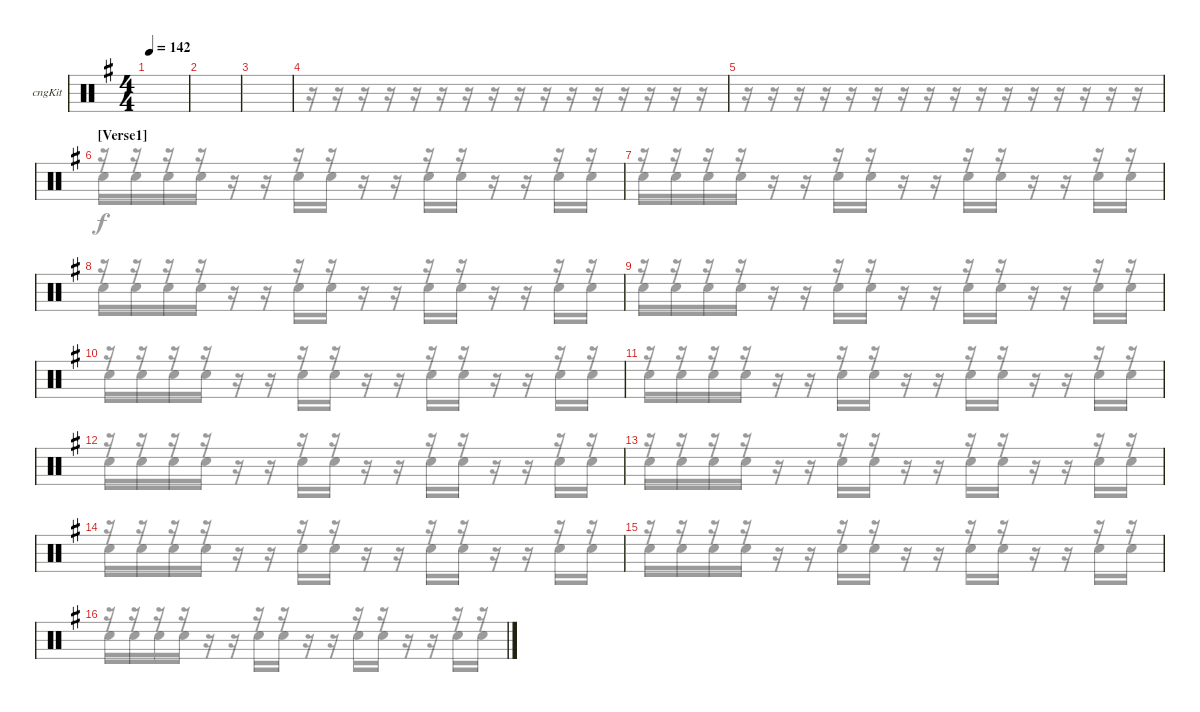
\bracketExtendMode groupsimilarinstruments
\firstSystemTrackNameOrientation horizontal
\otherSystemsTrackNameOrientation horizontal
\track ("Congas" "cngKit") {instrument percussion}
\staff {score}
\articulation defaults
\voice
\ts (4 4)
\tempo 142
\clef neutral
\ks eminor
|
|
|
|
|
\section ("" "[Verse1] ")
|
|
|
|
|
|
|
|
|
|
\voice
\clef neutral
\ks eminor
|
|
|
r.16 r.16 r.16 r.16 r.16 r.16 r.16 r.16 r.16 r.16 r.16 r.16 r.16 r.16 r.16 r.16 |
r.16 r.16 r.16 r.16 r.16 r.16 r.16 r.16 r.16 r.16 r.16 r.16 r.16 r.16 r.16 r.16 |
r.16 r.16 r.16 r.16 r.16 r.16 r.16 r.16 r.16 r.16 r.16 r.16 r.16 r.16 r.16 r.16 |
r.16 r.16 r.16 r.16 r.16 r.16 r.16 r.16 r.16 r.16 r.16 r.16 r.16 r.16 r.16 r.16 |
r.16 r.16 r.16 r.16 r.16 r.16 r.16 r.16 r.16 r.16 r.16 r.16 r.16 r.16 r.16 r.16 |
r.16 r.16 r.16 r.16 r.16 r.16 r.16 r.16 r.16 r.16 r.16 r.16 r.16 r.16 r.16 r.16 |
r.16 r.16 r.16 r.16 r.16 r.16 r.16 r.16 r.16 r.16 r.16 r.16 r.16 r.16 r.16 r.16 |
r.16 r.16 r.16 r.16 r.16 r.16 r.16 r.16 r.16 r.16 r.16 r.16 r.16 r.16 r.16 r.16 |
r.16 r.16 r.16 r.16 r.16 r.16 r.16 r.16 r.16 r.16 r.16 r.16 r.16 r.16 r.16 r.16 |
r.16 r.16 r.16 r.16 r.16 r.16 r.16 r.16 r.16 r.16 r.16 r.16 r.16 r.16 r.16 r.16 |
r.16 r.16 r.16 r.16 r.16 r.16 r.16 r.16 r.16 r.16 r.16 r.16 r.16 r.16 r.16 r.16 |
r.16 r.16 r.16 r.16 r.16 r.16 r.16 r.16 r.16 r.16 r.16 r.16 r.16 r.16 r.16 r.16 |
r.16 r.16 r.16 r.16 r.16 r.16 r.16 r.16 r.16 r.16 r.16 r.16 r.16 r.16 r.16 r.16
\voice
\clef neutral
\ottava regular
\simile none
\ks eminor
|
|
|
|
|
"Snare (hit) 2".16 "Snare (hit) 2".16 "Snare (hit) 2".16 "Snare (hit) 2".16 r.16 r.16 "Snare (hit) 2".16 "Snare (hit) 2".16 r.16 r.16 "Snare (hit) 2".16 "Snare (hit) 2".16 r.16 r.16 "Snare (hit) 2".16 "Snare (hit) 2".16 |
"Snare (hit) 2".16 "Snare (hit) 2".16 "Snare (hit) 2".16 "Snare (hit) 2".16 r.16 r.16 "Snare (hit) 2".16 "Snare (hit) 2".16 r.16 r.16 "Snare (hit) 2".16 "Snare (hit) 2".16 r.16 r.16 "Snare (hit) 2".16 "Snare (hit) 2".16 |
"Snare (hit) 2".16 "Snare (hit) 2".16 "Snare (hit) 2".16 "Snare (hit) 2".16 r.16 r.16 "Snare (hit) 2".16 "Snare (hit) 2".16 r.16 r.16 "Snare (hit) 2".16 "Snare (hit) 2".16 r.16 r.16 "Snare (hit) 2".16 "Snare (hit) 2".16 |
"Snare (hit) 2".16 "Snare (hit) 2".16 "Snare (hit) 2".16 "Snare (hit) 2".16 r.16 r.16 "Snare (hit) 2".16 "Snare (hit) 2".16 r.16 r.16 "Snare (hit) 2".16 "Snare (hit) 2".16 r.16 r.16 "Snare (hit) 2".16 "Snare (hit) 2".16 |
"Snare (hit) 2".16 "Snare (hit) 2".16 "Snare (hit) 2".16 "Snare (hit) 2".16 r.16 r.16 "Snare (hit) 2".16 "Snare (hit) 2".16 r.16 r.16 "Snare (hit) 2".16 "Snare (hit) 2".16 r.16 r.16 "Snare (hit) 2".16 "Snare (hit) 2".16 |
"Snare (hit) 2".16 "Snare (hit) 2".16 "Snare (hit) 2".16 "Snare (hit) 2".16 r.16 r.16 "Snare (hit) 2".16 "Snare (hit) 2".16 r.16 r.16 "Snare (hit) 2".16 "Snare (hit) 2".16 r.16 r.16 "Snare (hit) 2".16 "Snare (hit) 2".16 |
"Snare (hit) 2".16 "Snare (hit) 2".16 "Snare (hit) 2".16 "Snare (hit) 2".16 r.16 r.16 "Snare (hit) 2".16 "Snare (hit) 2".16 r.16 r.16 "Snare (hit) 2".16 "Snare (hit) 2".16 r.16 r.16 "Snare (hit) 2".16 "Snare (hit) 2".16 |
"Snare (hit) 2".16 "Snare (hit) 2".16 "Snare (hit) 2".16 "Snare (hit) 2".16 r.16 r.16 "Snare (hit) 2".16 "Snare (hit) 2".16 r.16 r.16 "Snare (hit) 2".16 "Snare (hit) 2".16 r.16 r.16 "Snare (hit) 2".16 "Snare (hit) 2".16 |
"Snare (hit) 2".16 "Snare (hit) 2".16 "Snare (hit) 2".16 "Snare (hit) 2".16 r.16 r.16 "Snare (hit) 2".16 "Snare (hit) 2".16 r.16 r.16 "Snare (hit) 2".16 "Snare (hit) 2".16 r.16 r.16 "Snare (hit) 2".16 "Snare (hit) 2".16 |
"Snare (hit) 2".16 "Snare (hit) 2".16 "Snare (hit) 2".16 "Snare (hit) 2".16 r.16 r.16 "Snare (hit) 2".16 "Snare (hit) 2".16 r.16 r.16 "Snare (hit) 2".16 "Snare (hit) 2".16 r.16 r.16 "Snare (hit) 2".16 "Snare (hit) 2".16 |
"Snare (hit) 2".16 "Snare (hit) 2".16 "Snare (hit) 2".16 "Snare (hit) 2".16 r.16 r.16 "Snare (hit) 2".16 "Snare (hit) 2".16 r.16 r.16 "Snare (hit) 2".16 "Snare (hit) 2".16 r.16 r.16 "Snare (hit) 2".16 "Snare (hit) 2".16
